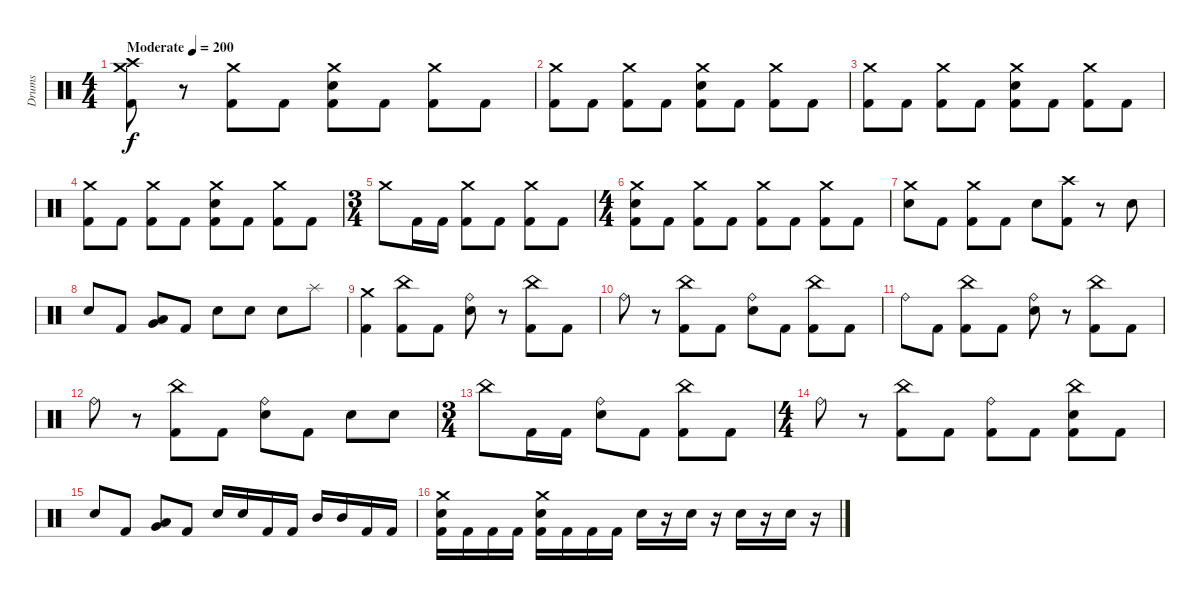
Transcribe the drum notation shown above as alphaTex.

\track ("Drums" "Drums") {instrument percussion}
\staff {score}
\articulation defaults
\ts (4 4)
\tempo (200 "Moderate")
\clef neutral
\ks c
("Crash high (hit)" "Crash medium (hit)" "Kick (hit) 2").8{dy f} r.8 ("Crash medium (hit)" "Kick (hit) 2").8 "Kick (hit) 2".8 ("Crash medium (hit)" "Snare (hit) 2" "Kick (hit) 2").8 "Kick (hit) 2".8 ("Crash medium (hit)" "Kick (hit) 2").8 "Kick (hit) 2".8 |
("Crash medium (hit)" "Kick (hit) 2").8 "Kick (hit) 2".8 ("Crash medium (hit)" "Kick (hit) 2").8 "Kick (hit) 2".8 ("Crash medium (hit)" "Snare (hit) 2" "Kick (hit) 2").8 "Kick (hit) 2".8 ("Crash medium (hit)" "Kick (hit) 2").8 "Kick (hit) 2".8 |
("Crash medium (hit)" "Kick (hit) 2").8 "Kick (hit) 2".8 ("Crash medium (hit)" "Kick (hit) 2").8 "Kick (hit) 2".8 ("Crash medium (hit)" "Snare (hit) 2" "Kick (hit) 2").8 "Kick (hit) 2".8 ("Crash medium (hit)" "Kick (hit) 2").8 "Kick (hit) 2".8 |
("Crash medium (hit)" "Kick (hit) 2").8 "Kick (hit) 2".8 ("Crash medium (hit)" "Kick (hit) 2").8 "Kick (hit) 2".8 ("Crash medium (hit)" "Snare (hit) 2" "Kick (hit) 2").8 "Kick (hit) 2".8 ("Crash medium (hit)" "Kick (hit) 2").8 "Kick (hit) 2".8 |
\ts (3 4)
"Crash medium (hit)".8 "Kick (hit) 2".16 "Kick (hit) 2".16 ("Crash medium (hit)" "Kick (hit) 2").8 "Kick (hit) 2".8 ("Crash medium (hit)" "Kick (hit) 2").8 "Kick (hit) 2".8 |
\ts (4 4)
("Crash medium (hit)" "Snare (hit) 2" "Kick (hit) 2").8 "Kick (hit) 2".8 ("Crash medium (hit)" "Kick (hit) 2").8 "Kick (hit) 2".8 ("Crash medium (hit)" "Kick (hit) 2").8 "Kick (hit) 2".8 ("Crash medium (hit)" "Kick (hit) 2").8 "Kick (hit) 2".8 |
("Crash medium (hit)" "Snare (hit) 2").8 "Kick (hit) 2".8 ("Crash medium (hit)" "Kick (hit) 2").8 "Kick (hit) 2".8 "Snare (hit) 2".8 ("Crash high (hit)" "Kick (hit) 2").8 r.8 "Snare (hit) 2".8 |
"Snare (hit) 2".8 "Kick (hit) 2".8 ("Low Tom (hit)" "Very Low Tom (hit)").8 "Kick (hit) 2".8 "Snare (hit) 2".8 "Snare (hit) 2".8 "Snare (hit) 2".8 "Splash (hit)".8 |
("Crash medium (hit)" "Kick (hit) 2").4 ("China (hit)" "Kick (hit) 2").8 "Kick (hit) 2".8 ("Ride (bell)" "Snare (hit) 2").8 r.8 ("China (hit)" "Kick (hit) 2").8 "Kick (hit) 2".8 |
"Ride (bell)".8 r.8 ("China (hit)" "Kick (hit) 2").8 "Kick (hit) 2".8 ("Ride (bell)" "Snare (hit) 2").8 "Kick (hit) 2".8 ("China (hit)" "Kick (hit) 2").8 "Kick (hit) 2".8 |
"Ride (bell)".8 "Kick (hit) 2".8 ("China (hit)" "Kick (hit) 2").8 "Kick (hit) 2".8 ("Ride (bell)" "Snare (hit) 2").8 r.8 ("China (hit)" "Kick (hit) 2").8 "Kick (hit) 2".8 |
"Ride (bell)".8 r.8 ("China (hit)" "Kick (hit) 2").8 "Kick (hit) 2".8 ("Ride (bell)" "Snare (hit) 2").8 "Kick (hit) 2".8 "Snare (hit) 2".8 "Snare (hit) 2".8 |
\ts (3 4)
"China (hit)".8 "Kick (hit) 2".16 "Kick (hit) 2".16 ("Ride (bell)" "Snare (hit) 2").8 "Kick (hit) 2".8 ("China (hit)" "Kick (hit) 2").8 "Kick (hit) 2".8 |
\ts (4 4)
"Ride (bell)".8 r.8 ("China (hit)" "Kick (hit) 2").8 "Kick (hit) 2".8 ("Ride (bell)" "Kick (hit) 2").8 "Kick (hit) 2".8 ("China (hit)" "Snare (hit) 2" "Kick (hit) 2").8 "Kick (hit) 2".8 |
"Snare (hit) 2".8 "Kick (hit) 2".8 ("Low Tom (hit)" "Very Low Tom (hit)").8 "Kick (hit) 2".8 "Snare (hit) 2".16 "Snare (hit) 2".16 "Kick (hit) 2".16 "Kick (hit) 2".16 "Mid Tom (hit)".16 "Mid Tom (hit)".16 "Kick (hit) 2".16 "Kick (hit) 2".16 |
("Crash medium (hit)" "Snare (hit) 2" "Kick (hit) 2").16 "Kick (hit) 2".16 "Kick (hit) 2".16 "Kick (hit) 2".16 ("Crash medium (hit)" "Snare (hit) 2" "Kick (hit) 2").16 "Kick (hit) 2".16 "Kick (hit) 2".16 "Kick (hit) 2".16 "Snare (hit) 2".16 r.16 "Snare (hit) 2".16 r.16 "Snare (hit) 2".16 r.16 "Snare (hit) 2".16 r.16
